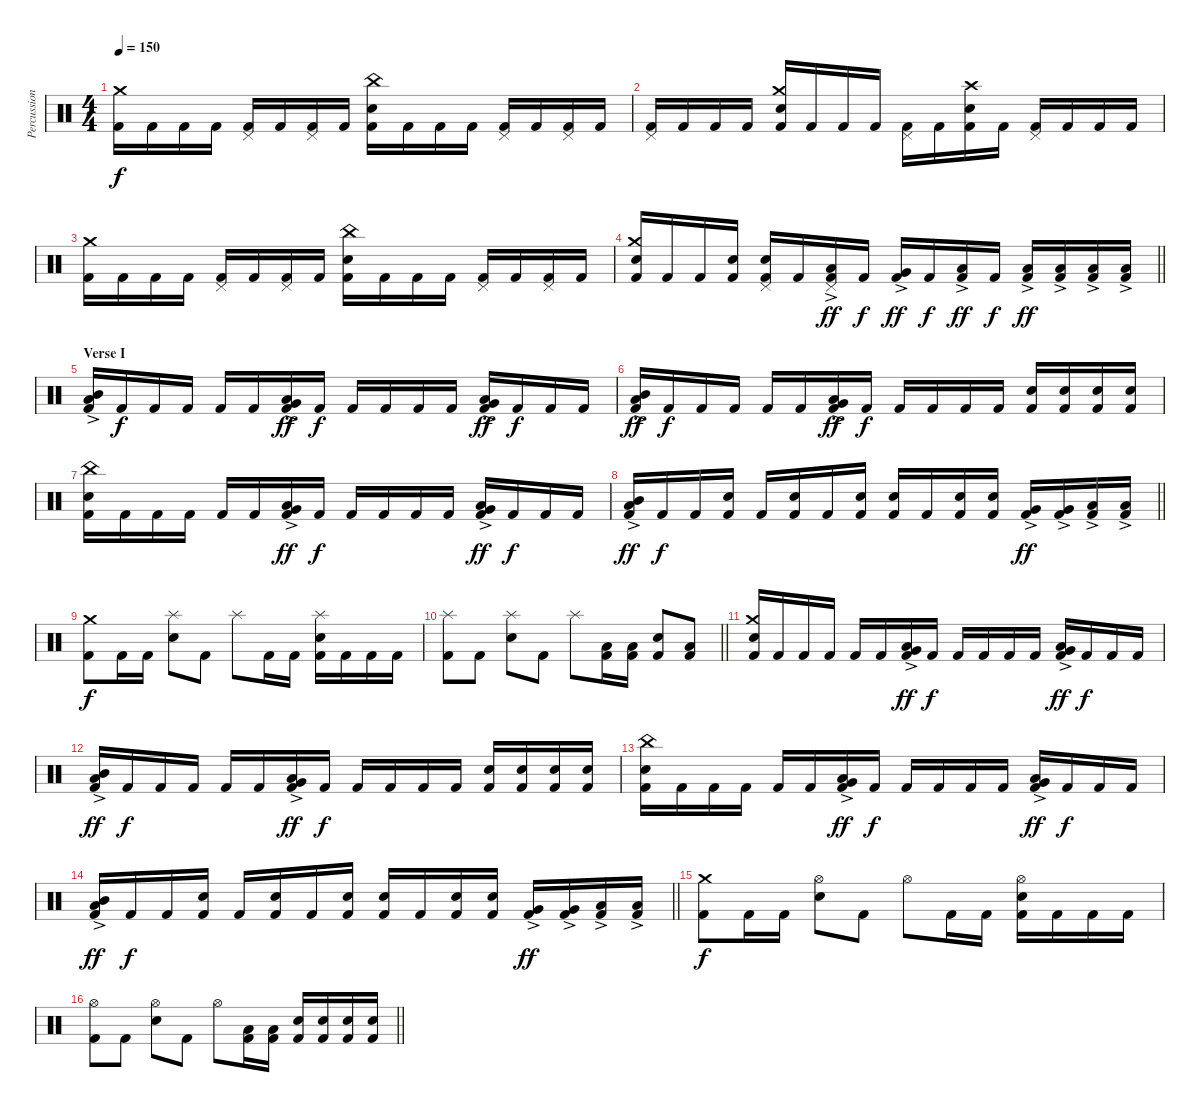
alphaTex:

\track ("Percussion" "Percussion") {instrument percussion}
\staff {score}
\articulation defaults
\ts (4 4)
\section ("" "")
\tempo 150
\clef neutral
\ks c
("Kick (hit) 2" "Crash medium (hit)").16{dy f volume 15} "Kick (hit) 2".16 "Kick (hit) 2".16 "Kick (hit) 2".16 ("Kick (hit) 2" "Pedal Hi-Hat (hit)").16 "Kick (hit) 2".16 ("Kick (hit) 2" "Pedal Hi-Hat (hit)").16 "Kick (hit) 2".16 ("Kick (hit) 2" "Snare (hit) 2" "China (hit)").16 "Kick (hit) 2".16 "Kick (hit) 2".16 "Kick (hit) 2".16 ("Kick (hit) 2" "Pedal Hi-Hat (hit)").16 "Kick (hit) 2".16 ("Kick (hit) 2" "Pedal Hi-Hat (hit)").16 "Kick (hit) 2".16 |
("Kick (hit) 2" "Pedal Hi-Hat (hit)").16 "Kick (hit) 2".16 "Kick (hit) 2".16 "Kick (hit) 2".16 ("Kick (hit) 2" "Snare (hit) 2" "Crash medium (hit)").16 "Kick (hit) 2".16 "Kick (hit) 2".16 "Kick (hit) 2".16 ("Kick (hit) 2" "Pedal Hi-Hat (hit)").16 "Kick (hit) 2".16 ("Kick (hit) 2" "Snare (hit) 2" "Crash high (hit)").16 "Kick (hit) 2".16 ("Kick (hit) 2" "Pedal Hi-Hat (hit)").16 "Kick (hit) 2".16 "Kick (hit) 2".16 "Kick (hit) 2".16 |
("Kick (hit) 2" "Crash medium (hit)").16 "Kick (hit) 2".16 "Kick (hit) 2".16 "Kick (hit) 2".16 ("Kick (hit) 2" "Pedal Hi-Hat (hit)").16 "Kick (hit) 2".16 ("Kick (hit) 2" "Pedal Hi-Hat (hit)").16 "Kick (hit) 2".16 ("Kick (hit) 2" "Snare (hit) 2" "China (hit)").16 "Kick (hit) 2".16 "Kick (hit) 2".16 "Kick (hit) 2".16 ("Kick (hit) 2" "Pedal Hi-Hat (hit)").16 "Kick (hit) 2".16 ("Kick (hit) 2" "Pedal Hi-Hat (hit)").16 "Kick (hit) 2".16 |
\barLineRight lightlight
("Kick (hit) 2" "Snare (hit) 2" "Crash medium (hit)").16 "Kick (hit) 2".16 "Kick (hit) 2".16 ("Kick (hit) 2" "Snare (hit) 2").16 ("Kick (hit) 2" "Snare (hit) 2" "Pedal Hi-Hat (hit)").16 "Kick (hit) 2".16 ("Kick (hit) 2" "Low Tom (hit)"{ac} "Pedal Hi-Hat (hit)").16{dy ff} "Kick (hit) 2".16{dy f} ("Kick (hit) 2" "Very Low Tom (hit)"{ac}).16{dy ff} "Kick (hit) 2".16{dy f} ("Kick (hit) 2" "Low Floor Tom (hit)"{ac}).16{dy ff} "Kick (hit) 2".16{dy f} ("Kick (hit) 2" "Low Floor Tom (hit)"{ac}).16{dy ff} ("Kick (hit) 2" "Low Floor Tom (hit)"{ac}).16 ("Kick (hit) 2" "Low Floor Tom (hit)"{ac}).16 ("Kick (hit) 2" "Low Floor Tom (hit)"{ac}).16 |
\section ("" "Verse I")
("Kick (hit) 2" "Low Tom (hit)"{ac} "Mid Tom (hit)"{ac}).16 "Kick (hit) 2".16{dy f} "Kick (hit) 2".16 "Kick (hit) 2".16 "Kick (hit) 2".16 "Kick (hit) 2".16 ("Kick (hit) 2" "Very Low Tom (hit)"{ac} "Low Tom (hit)"{ac}).16{dy ff} "Kick (hit) 2".16{dy f} "Kick (hit) 2".16 "Kick (hit) 2".16 "Kick (hit) 2".16 "Kick (hit) 2".16 ("Kick (hit) 2" "Low Floor Tom (hit)"{ac} "Very Low Tom (hit)"{ac}).16{dy ff} "Kick (hit) 2".16{dy f} "Kick (hit) 2".16 "Kick (hit) 2".16 |
("Kick (hit) 2" "Low Tom (hit)"{ac} "Mid Tom (hit)"{ac}).16{dy ff} "Kick (hit) 2".16{dy f} "Kick (hit) 2".16 "Kick (hit) 2".16 "Kick (hit) 2".16 "Kick (hit) 2".16 ("Kick (hit) 2" "Very Low Tom (hit)"{ac} "Low Tom (hit)"{ac}).16{dy ff} "Kick (hit) 2".16{dy f} "Kick (hit) 2".16 "Kick (hit) 2".16 "Kick (hit) 2".16 "Kick (hit) 2".16 ("Kick (hit) 2" "Snare (hit) 2").16 ("Kick (hit) 2" "Snare (hit) 2").16 ("Kick (hit) 2" "Snare (hit) 2").16 ("Kick (hit) 2" "Snare (hit) 2").16 |
("Kick (hit) 2" "Snare (hit) 2" "China (hit)").16 "Kick (hit) 2".16 "Kick (hit) 2".16 "Kick (hit) 2".16 "Kick (hit) 2".16 "Kick (hit) 2".16 ("Kick (hit) 2" "Very Low Tom (hit)"{ac} "Low Tom (hit)"{ac}).16{dy ff} "Kick (hit) 2".16{dy f} "Kick (hit) 2".16 "Kick (hit) 2".16 "Kick (hit) 2".16 "Kick (hit) 2".16 ("Kick (hit) 2" "Low Floor Tom (hit)"{ac} "Very Low Tom (hit)"{ac}).16{dy ff} "Kick (hit) 2".16{dy f} "Kick (hit) 2".16 "Kick (hit) 2".16 |
\barLineRight lightlight
("Kick (hit) 2" "Low Tom (hit)"{ac} "Mid Tom (hit)"{ac}).16{dy ff} "Kick (hit) 2".16{dy f} "Kick (hit) 2".16 ("Kick (hit) 2" "Snare (hit) 2").16 "Kick (hit) 2".16 ("Kick (hit) 2" "Snare (hit) 2").16 "Kick (hit) 2".16 ("Kick (hit) 2" "Snare (hit) 2").16 ("Kick (hit) 2" "Snare (hit) 2").16 "Kick (hit) 2".16 ("Kick (hit) 2" "Snare (hit) 2").16 ("Kick (hit) 2" "Snare (hit) 2").16 ("Kick (hit) 2" "Very Low Tom (hit)"{ac}).16{dy ff} ("Kick (hit) 2" "Very Low Tom (hit)"{ac}).16 ("Kick (hit) 2" "Low Floor Tom (hit)"{ac}).16 ("Kick (hit) 2" "Low Floor Tom (hit)"{ac}).16 |
\section ("" "")
("Kick (hit) 2" "Crash medium (hit)").8{dy f} "Kick (hit) 2".16 "Kick (hit) 2".16 ("Snare (hit) 2" "Splash (hit)").8 "Kick (hit) 2".8 "Splash (hit)".8 "Kick (hit) 2".16 "Kick (hit) 2".16 ("Kick (hit) 2" "Snare (hit) 2" "Splash (hit)").16 "Kick (hit) 2".16 "Kick (hit) 2".16 "Kick (hit) 2".16 |
\barLineRight lightlight
("Kick (hit) 2" "Splash (hit)").8 "Kick (hit) 2".8 ("Snare (hit) 2" "Splash (hit)").8 "Kick (hit) 2".8 "Splash (hit)".8 ("Kick (hit) 2" "Low Tom (hit)").16 ("Kick (hit) 2" "Low Tom (hit)").16 ("Kick (hit) 2" "Snare (hit) 2").8 ("Kick (hit) 2" "Low Floor Tom (hit)").8 |
\section ("" "")
("Kick (hit) 2" "Snare (hit) 2" "Crash medium (hit)").16 "Kick (hit) 2".16 "Kick (hit) 2".16 "Kick (hit) 2".16 "Kick (hit) 2".16 "Kick (hit) 2".16 ("Kick (hit) 2" "Very Low Tom (hit)"{ac} "Low Tom (hit)"{ac}).16{dy ff} "Kick (hit) 2".16{dy f} "Kick (hit) 2".16 "Kick (hit) 2".16 "Kick (hit) 2".16 "Kick (hit) 2".16 ("Kick (hit) 2" "Low Floor Tom (hit)"{ac} "Very Low Tom (hit)"{ac}).16{dy ff} "Kick (hit) 2".16{dy f} "Kick (hit) 2".16 "Kick (hit) 2".16 |
("Kick (hit) 2" "Low Tom (hit)"{ac} "Mid Tom (hit)"{ac}).16{dy ff} "Kick (hit) 2".16{dy f} "Kick (hit) 2".16 "Kick (hit) 2".16 "Kick (hit) 2".16 "Kick (hit) 2".16 ("Kick (hit) 2" "Very Low Tom (hit)"{ac} "Low Tom (hit)"{ac}).16{dy ff} "Kick (hit) 2".16{dy f} "Kick (hit) 2".16 "Kick (hit) 2".16 "Kick (hit) 2".16 "Kick (hit) 2".16 ("Kick (hit) 2" "Snare (hit) 2").16 ("Kick (hit) 2" "Snare (hit) 2").16 ("Kick (hit) 2" "Snare (hit) 2").16 ("Kick (hit) 2" "Snare (hit) 2").16 |
("Kick (hit) 2" "Snare (hit) 2" "China (hit)").16 "Kick (hit) 2".16 "Kick (hit) 2".16 "Kick (hit) 2".16 "Kick (hit) 2".16 "Kick (hit) 2".16 ("Kick (hit) 2" "Very Low Tom (hit)"{ac} "Low Tom (hit)"{ac}).16{dy ff} "Kick (hit) 2".16{dy f} "Kick (hit) 2".16 "Kick (hit) 2".16 "Kick (hit) 2".16 "Kick (hit) 2".16 ("Kick (hit) 2" "Low Floor Tom (hit)"{ac} "Very Low Tom (hit)"{ac}).16{dy ff} "Kick (hit) 2".16{dy f} "Kick (hit) 2".16 "Kick (hit) 2".16 |
\barLineRight lightlight
("Kick (hit) 2" "Low Tom (hit)"{ac} "Mid Tom (hit)"{ac}).16{dy ff} "Kick (hit) 2".16{dy f} "Kick (hit) 2".16 ("Kick (hit) 2" "Snare (hit) 2").16 "Kick (hit) 2".16 ("Kick (hit) 2" "Snare (hit) 2").16 "Kick (hit) 2".16 ("Kick (hit) 2" "Snare (hit) 2").16 ("Kick (hit) 2" "Snare (hit) 2").16 "Kick (hit) 2".16 ("Kick (hit) 2" "Snare (hit) 2").16 ("Kick (hit) 2" "Snare (hit) 2").16 ("Kick (hit) 2" "Very Low Tom (hit)"{ac}).16{dy ff} ("Kick (hit) 2" "Very Low Tom (hit)"{ac}).16 ("Kick (hit) 2" "Low Floor Tom (hit)"{ac}).16 ("Kick (hit) 2" "Low Floor Tom (hit)"{ac}).16 |
\section ("" "")
("Kick (hit) 2" "Crash medium (hit)").8{dy f} "Kick (hit) 2".16 "Kick (hit) 2".16 ("Snare (hit) 2" "Hi-Hat (open)").8 "Kick (hit) 2".8 "Hi-Hat (open)".8 "Kick (hit) 2".16 "Kick (hit) 2".16 ("Kick (hit) 2" "Snare (hit) 2" "Hi-Hat (open)").16 "Kick (hit) 2".16 "Kick (hit) 2".16 "Kick (hit) 2".16 |
\barLineRight lightlight
("Kick (hit) 2" "Hi-Hat (open)").8 "Kick (hit) 2".8 ("Snare (hit) 2" "Hi-Hat (open)").8 "Kick (hit) 2".8 "Hi-Hat (open)".8 ("Kick (hit) 2" "Low Tom (hit)").16 ("Kick (hit) 2" "Low Tom (hit)").16 ("Kick (hit) 2" "Snare (hit) 2").16 ("Kick (hit) 2" "Snare (hit) 2").16 ("Kick (hit) 2" "Snare (hit) 2").16 ("Kick (hit) 2" "Snare (hit) 2").16
